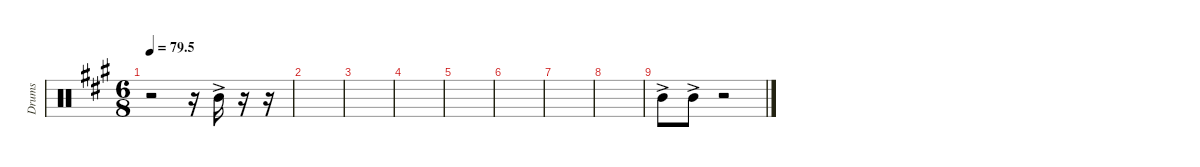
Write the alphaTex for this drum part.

\defaultSystemsLayout 4
\hideDynamics
\bracketExtendMode nobrackets
\otherSystemsTrackNameOrientation horizontal
\track ("Tom 02" "Drums") {instrument percussion}
\staff {score}
\articulation defaults
\ts (6 8)
\tempo
79.5
\accidentals auto
\clef neutral
\ottava regular
\simile none
\scale
0.333333
\ks a
r.2{dy f} r.16 "Mid Tom (hit)"{ac acc forcenatural}.16 r.16 r.16 |
\scale
0.333333 |
\scale
0.333333 |
\scale
0.333333 |
\scale
0.333333 |
\scale
0.333333 |
\scale
0.333333 |
\scale
0.333333 |
\scale
0.333333 "Mid Tom (hit)"{ac acc forcenatural}.8 "Mid Tom (hit)"{ac acc forcenatural}.8 r.2 |
\scale
0.333333 |
\scale
0.333333 |
\scale
0.333333
